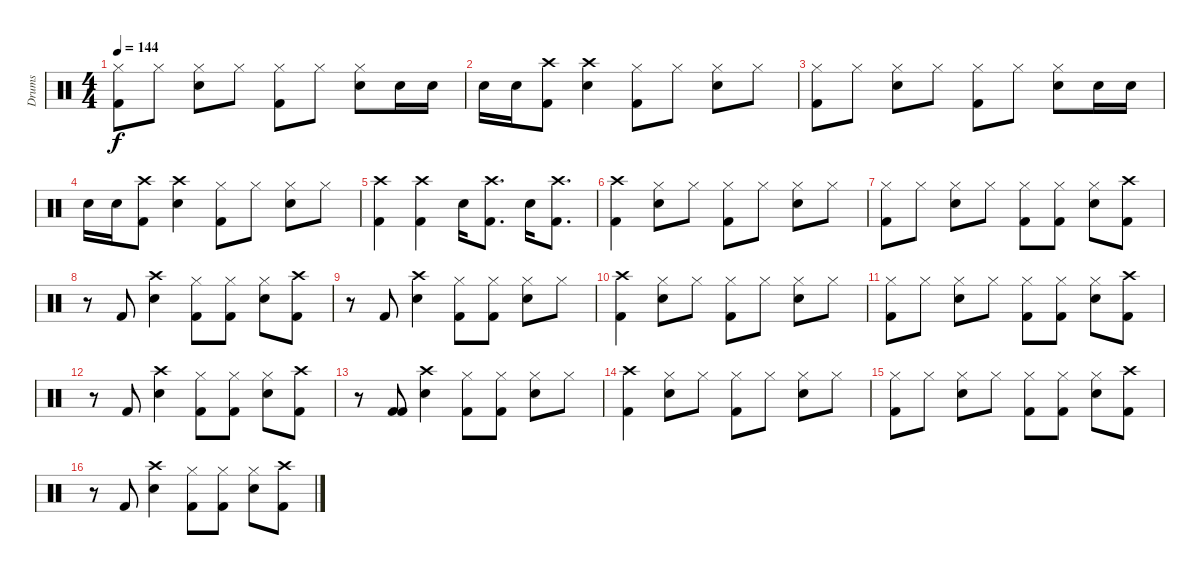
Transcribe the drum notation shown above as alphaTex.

\track ("Drums" "Drums") {instrument percussion}
\staff {score}
\articulation defaults
\ts (4 4)
\tempo 144
\clef neutral
\ks c
("Hi-Hat (closed)" "Kick (hit) 2").8{dy f} "Hi-Hat (closed)".8 ("Hi-Hat (closed)" "Snare (hit) 2").8 "Hi-Hat (closed)".8 ("Hi-Hat (closed)" "Kick (hit) 2").8 "Hi-Hat (closed)".8 ("Hi-Hat (closed)" "Snare (hit) 2").8 "Snare (hit) 2".16 "Snare (hit) 2".16 |
"Snare (hit) 2".16 "Snare (hit) 2".16 ("Crash high (hit)" "Kick (hit) 2").8 ("Crash high (hit)" "Snare (hit) 2").4 ("Hi-Hat (closed)" "Kick (hit) 2").8 "Hi-Hat (closed)".8 ("Hi-Hat (closed)" "Snare (hit) 2").8 "Hi-Hat (closed)".8 |
("Hi-Hat (closed)" "Kick (hit) 2").8 "Hi-Hat (closed)".8 ("Hi-Hat (closed)" "Snare (hit) 2").8 "Hi-Hat (closed)".8 ("Hi-Hat (closed)" "Kick (hit) 2").8 "Hi-Hat (closed)".8 ("Hi-Hat (closed)" "Snare (hit) 2").8 "Snare (hit) 2".16 "Snare (hit) 2".16 |
"Snare (hit) 2".16 "Snare (hit) 2".16 ("Crash high (hit)" "Kick (hit) 2").8 ("Crash high (hit)" "Snare (hit) 2").4 ("Hi-Hat (closed)" "Kick (hit) 2").8 "Hi-Hat (closed)".8 ("Hi-Hat (closed)" "Snare (hit) 2").8 "Hi-Hat (closed)".8 |
("Crash high (hit)" "Kick (hit) 2").4 ("Crash high (hit)" "Kick (hit) 2").4 "Snare (hit) 2".16 ("Crash high (hit)" "Kick (hit) 2").8{d} "Snare (hit) 2".16 ("Crash high (hit)" "Kick (hit) 2").8{d} |
("Crash high (hit)" "Kick (hit) 2").4 ("Hi-Hat (closed)" "Snare (hit) 2").8 "Hi-Hat (closed)".8 ("Hi-Hat (closed)" "Kick (hit) 2").8 "Hi-Hat (closed)".8 ("Hi-Hat (closed)" "Snare (hit) 2").8 "Hi-Hat (closed)".8 |
("Hi-Hat (closed)" "Kick (hit) 2").8 "Hi-Hat (closed)".8 ("Hi-Hat (closed)" "Snare (hit) 2").8 "Hi-Hat (closed)".8 ("Hi-Hat (closed)" "Kick (hit) 2").8 ("Hi-Hat (closed)" "Kick (hit) 2").8 ("Hi-Hat (closed)" "Snare (hit) 2").8 ("Crash high (hit)" "Kick (hit) 2").8 |
r.8 "Kick (hit) 2".8 ("Crash high (hit)" "Snare (hit) 2").4 ("Hi-Hat (closed)" "Kick (hit) 2").8 ("Hi-Hat (closed)" "Kick (hit) 2").8 ("Hi-Hat (closed)" "Snare (hit) 2").8 ("Crash high (hit)" "Kick (hit) 2").8 |
r.8 "Kick (hit) 2".8 ("Crash high (hit)" "Snare (hit) 2").4 ("Kick (hit) 2" "Hi-Hat (closed)").8 ("Kick (hit) 2" "Hi-Hat (closed)").8 ("Snare (hit) 2" "Hi-Hat (closed)").8 "Hi-Hat (closed)".8 |
("Crash high (hit)" "Kick (hit) 2").4 ("Hi-Hat (closed)" "Snare (hit) 2").8 "Hi-Hat (closed)".8 ("Hi-Hat (closed)" "Kick (hit) 2").8 "Hi-Hat (closed)".8 ("Hi-Hat (closed)" "Snare (hit) 2").8 "Hi-Hat (closed)".8 |
("Hi-Hat (closed)" "Kick (hit) 2").8 "Hi-Hat (closed)".8 ("Hi-Hat (closed)" "Snare (hit) 2").8 "Hi-Hat (closed)".8 ("Hi-Hat (closed)" "Kick (hit) 2").8 ("Hi-Hat (closed)" "Kick (hit) 2").8 ("Hi-Hat (closed)" "Snare (hit) 2").8 ("Crash high (hit)" "Kick (hit) 2").8 |
r.8 "Kick (hit) 2".8 ("Crash high (hit)" "Snare (hit) 2").4 ("Hi-Hat (closed)" "Kick (hit) 2").8 ("Hi-Hat (closed)" "Kick (hit) 2").8 ("Hi-Hat (closed)" "Snare (hit) 2").8 ("Crash high (hit)" "Kick (hit) 2").8 |
r.8 ("Kick (hit) 2" "Kick (hit) 2").8 ("Crash high (hit)" "Snare (hit) 2").4 ("Kick (hit) 2" "Hi-Hat (closed)").8 ("Kick (hit) 2" "Hi-Hat (closed)").8 ("Snare (hit) 2" "Hi-Hat (closed)").8 "Hi-Hat (closed)".8 |
("Crash high (hit)" "Kick (hit) 2").4 ("Hi-Hat (closed)" "Snare (hit) 2").8 "Hi-Hat (closed)".8 ("Hi-Hat (closed)" "Kick (hit) 2").8 "Hi-Hat (closed)".8 ("Hi-Hat (closed)" "Snare (hit) 2").8 "Hi-Hat (closed)".8 |
("Hi-Hat (closed)" "Kick (hit) 2").8 "Hi-Hat (closed)".8 ("Hi-Hat (closed)" "Snare (hit) 2").8 "Hi-Hat (closed)".8 ("Hi-Hat (closed)" "Kick (hit) 2").8 ("Hi-Hat (closed)" "Kick (hit) 2").8 ("Hi-Hat (closed)" "Snare (hit) 2").8 ("Crash high (hit)" "Kick (hit) 2").8 |
r.8 "Kick (hit) 2".8 ("Crash high (hit)" "Snare (hit) 2").4 ("Hi-Hat (closed)" "Kick (hit) 2").8 ("Hi-Hat (closed)" "Kick (hit) 2").8 ("Hi-Hat (closed)" "Snare (hit) 2").8 ("Crash high (hit)" "Kick (hit) 2").8
